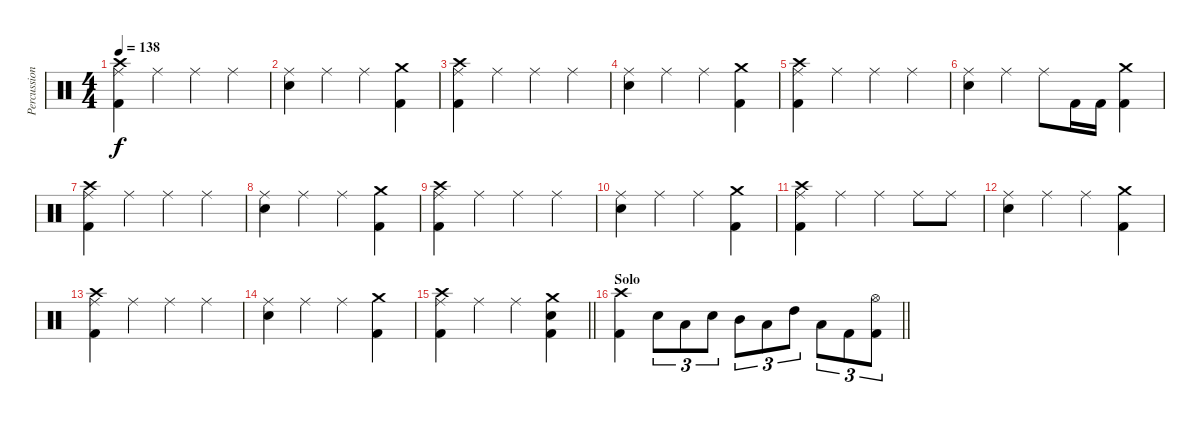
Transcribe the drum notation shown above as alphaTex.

\track ("Percussions" "Percussion") {instrument percussion}
\staff {score}
\articulation defaults
\ts (4 4)
\tempo 138
\clef neutral
\ks c
("Crash high (hit)" "Ride (middle)" "Kick (hit) 2").4{dy f} "Ride (middle)".4 "Ride (middle)".4 "Ride (middle)".4 |
("Ride (middle)" "Snare (hit) 2").4 "Ride (middle)".4 "Ride (middle)".4 ("Crash medium (hit)" "Kick (hit) 2").4 |
("Crash high (hit)" "Ride (middle)" "Kick (hit) 2").4 "Ride (middle)".4 "Ride (middle)".4 "Ride (middle)".4 |
("Ride (middle)" "Snare (hit) 2").4 "Ride (middle)".4 "Ride (middle)".4 ("Crash medium (hit)" "Kick (hit) 2").4 |
("Crash high (hit)" "Ride (middle)" "Kick (hit) 2").4 "Ride (middle)".4 "Ride (middle)".4 "Ride (middle)".4 |
("Ride (middle)" "Snare (hit) 2").4 "Ride (middle)".4 "Ride (middle)".8 "Kick (hit) 2".16 "Kick (hit) 2".16 ("Crash medium (hit)" "Kick (hit) 2").4 |
("Crash high (hit)" "Ride (middle)" "Kick (hit) 2").4 "Ride (middle)".4 "Ride (middle)".4 "Ride (middle)".4 |
("Ride (middle)" "Snare (hit) 2").4 "Ride (middle)".4 "Ride (middle)".4 ("Crash medium (hit)" "Kick (hit) 2").4 |
("Crash high (hit)" "Ride (middle)" "Kick (hit) 2").4 "Ride (middle)".4 "Ride (middle)".4 "Ride (middle)".4 |
("Ride (middle)" "Snare (hit) 2").4 "Ride (middle)".4 "Ride (middle)".4 ("Crash medium (hit)" "Kick (hit) 2").4 |
("Crash high (hit)" "Ride (middle)" "Kick (hit) 2").4 "Ride (middle)".4 "Ride (middle)".4 "Ride (middle)".8 "Ride (middle)".8 |
("Ride (middle)" "Snare (hit) 2").4 "Ride (middle)".4 "Ride (middle)".4 ("Crash medium (hit)" "Kick (hit) 2").4 |
("Crash high (hit)" "Ride (middle)" "Kick (hit) 2").4 "Ride (middle)".4 "Ride (middle)".4 "Ride (middle)".4 |
("Ride (middle)" "Snare (hit) 2").4 "Ride (middle)".4 "Ride (middle)".4 ("Crash medium (hit)" "Kick (hit) 2").4 |
\barLineRight lightlight
("Crash high (hit)" "Ride (middle)" "Kick (hit) 2").4 "Ride (middle)".4 "Ride (middle)".4 ("Crash medium (hit)" "Snare (hit) 2" "Kick (hit) 2").4 |
\section ("" "Solo")
\barLineRight lightlight
("Crash high (hit)" "Kick (hit) 2").4 "Snare (hit) 2".8{tu (3 2)} "Low Tom (hit)".8{tu (3 2)} "Snare (hit) 2".8{tu (3 2)} "Mid Tom (hit)".8{tu (3 2)} "Low Tom (hit)".8{tu (3 2)} "High Tom (hit)".8{tu (3 2)} "Low Tom (hit)".8{tu (3 2)} "Kick (hit) 2".8{tu (3 2)} ("Hi-Hat (open)" "Kick (hit) 2").8{tu (3 2)}
